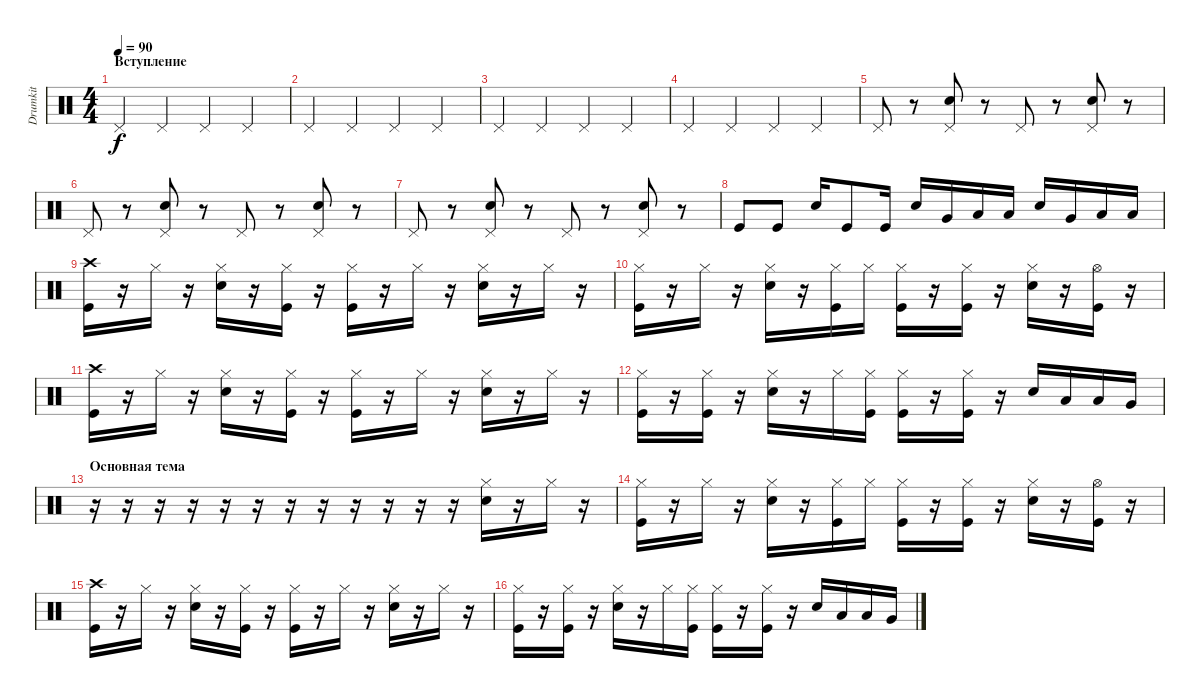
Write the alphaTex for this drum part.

\track ("Drumkit" "Drumkit") {instrument percussion}
\staff {score}
\articulation defaults
\ts (4 4)
\section ("" "Вступление")
\tempo 90
\clef neutral
\ks c "Pedal Hi-Hat (hit)".4{dy f} "Pedal Hi-Hat (hit)".4 "Pedal Hi-Hat (hit)".4 "Pedal Hi-Hat (hit)".4
|
"Pedal Hi-Hat (hit)".4 "Pedal Hi-Hat (hit)".4 "Pedal Hi-Hat (hit)".4 "Pedal Hi-Hat (hit)".4 |
"Pedal Hi-Hat (hit)".4 "Pedal Hi-Hat (hit)".4 "Pedal Hi-Hat (hit)".4 "Pedal Hi-Hat (hit)".4 |
"Pedal Hi-Hat (hit)".4 "Pedal Hi-Hat (hit)".4 "Pedal Hi-Hat (hit)".4 "Pedal Hi-Hat (hit)".4 |
"Pedal Hi-Hat (hit)".8 r.8 ("Snare (hit) 2" "Pedal Hi-Hat (hit)").8 r.8 "Pedal Hi-Hat (hit)".8 r.8 ("Snare (hit) 2" "Pedal Hi-Hat (hit)").8 r.8 |
"Pedal Hi-Hat (hit)".8 r.8 ("Snare (hit) 2" "Pedal Hi-Hat (hit)").8 r.8 "Pedal Hi-Hat (hit)".8 r.8 ("Snare (hit) 2" "Pedal Hi-Hat (hit)").8 r.8 |
"Pedal Hi-Hat (hit)".8 r.8 ("Snare (hit) 2" "Pedal Hi-Hat (hit)").8 r.8 "Pedal Hi-Hat (hit)".8 r.8 ("Snare (hit) 2" "Pedal Hi-Hat (hit)").8 r.8 |
"Kick (hit)".8 "Kick (hit)".8 "Snare (hit) 2".16 "Kick (hit)".8 "Kick (hit)".16 "Snare (hit) 2".16 "Very Low Tom (hit)".16 "Low Tom (hit)".16 "Low Floor Tom (hit)".16 "Snare (hit) 2".16 "Very Low Tom (hit)".16 "Low Tom (hit)".16 "Low Floor Tom (hit)".16 |
("Kick (hit)" "Crash high (hit)").16 r.16 "Hi-Hat (closed)".16 r.16 ("Hi-Hat (closed)" "Snare (hit) 2").16 r.16 ("Hi-Hat (closed)" "Kick (hit)").16 r.16 ("Hi-Hat (closed)" "Kick (hit)").16 r.16 "Hi-Hat (closed)".16 r.16 ("Hi-Hat (closed)" "Snare (hit) 2").16 r.16 "Hi-Hat (closed)".16 r.16 |
("Hi-Hat (closed)" "Kick (hit)").16 r.16 "Hi-Hat (closed)".16 r.16 ("Hi-Hat (closed)" "Snare (hit) 2").16 r.16 ("Hi-Hat (closed)" "Kick (hit)").16 "Hi-Hat (closed)".16 ("Hi-Hat (closed)" "Kick (hit)").16 r.16 ("Hi-Hat (closed)" "Kick (hit)").16 r.16 ("Hi-Hat (closed)" "Snare (hit) 2").16 r.16 ("Hi-Hat (open)" "Kick (hit)").16 r.16 |
("Kick (hit)" "Crash high (hit)").16 r.16 "Hi-Hat (closed)".16 r.16 ("Hi-Hat (closed)" "Snare (hit) 2").16 r.16 ("Hi-Hat (closed)" "Kick (hit)").16 r.16 ("Hi-Hat (closed)" "Kick (hit)").16 r.16 "Hi-Hat (closed)".16 r.16 ("Hi-Hat (closed)" "Snare (hit) 2").16 r.16 "Hi-Hat (closed)".16 r.16 |
("Hi-Hat (closed)" "Kick (hit)").16 r.16 ("Hi-Hat (closed)" "Kick (hit)").16 r.16 ("Hi-Hat (closed)" "Snare (hit) 2").16 r.16 "Hi-Hat (closed)".16 ("Kick (hit)" "Hi-Hat (closed)").16 ("Hi-Hat (closed)" "Kick (hit)").16 r.16 ("Hi-Hat (closed)" "Kick (hit)").16 r.16 "Snare (hit) 2".16 "Low Tom (hit)".16 "Low Floor Tom (hit)".16 "Very Low Tom (hit)".16 |
\section ("" "Основная тема")
r.16 r.16 r.16 r.16 r.16 r.16 r.16 r.16 r.16 r.16 r.16 r.16 ("Hi-Hat (closed)" "Snare (hit) 2").16 r.16 "Hi-Hat (closed)".16 r.16 |
("Hi-Hat (closed)" "Kick (hit)").16 r.16 "Hi-Hat (closed)".16 r.16 ("Hi-Hat (closed)" "Snare (hit) 2").16 r.16 ("Hi-Hat (closed)" "Kick (hit)").16 "Hi-Hat (closed)".16 ("Hi-Hat (closed)" "Kick (hit)").16 r.16 ("Hi-Hat (closed)" "Kick (hit)").16 r.16 ("Hi-Hat (closed)" "Snare (hit) 2").16 r.16 ("Hi-Hat (open)" "Kick (hit)").16 r.16 |
("Kick (hit)" "Crash high (hit)").16 r.16 "Hi-Hat (closed)".16 r.16 ("Hi-Hat (closed)" "Snare (hit) 2").16 r.16 ("Hi-Hat (closed)" "Kick (hit)").16 r.16 ("Hi-Hat (closed)" "Kick (hit)").16 r.16 "Hi-Hat (closed)".16 r.16 ("Hi-Hat (closed)" "Snare (hit) 2").16 r.16 "Hi-Hat (closed)".16 r.16 |
("Hi-Hat (closed)" "Kick (hit)").16 r.16 ("Hi-Hat (closed)" "Kick (hit)").16 r.16 ("Hi-Hat (closed)" "Snare (hit) 2").16 r.16 "Hi-Hat (closed)".16 ("Kick (hit)" "Hi-Hat (closed)").16 ("Hi-Hat (closed)" "Kick (hit)").16 r.16 ("Hi-Hat (closed)" "Kick (hit)").16 r.16 "Snare (hit) 2".16 "Low Tom (hit)".16 "Low Floor Tom (hit)".16 "Very Low Tom (hit)".16
